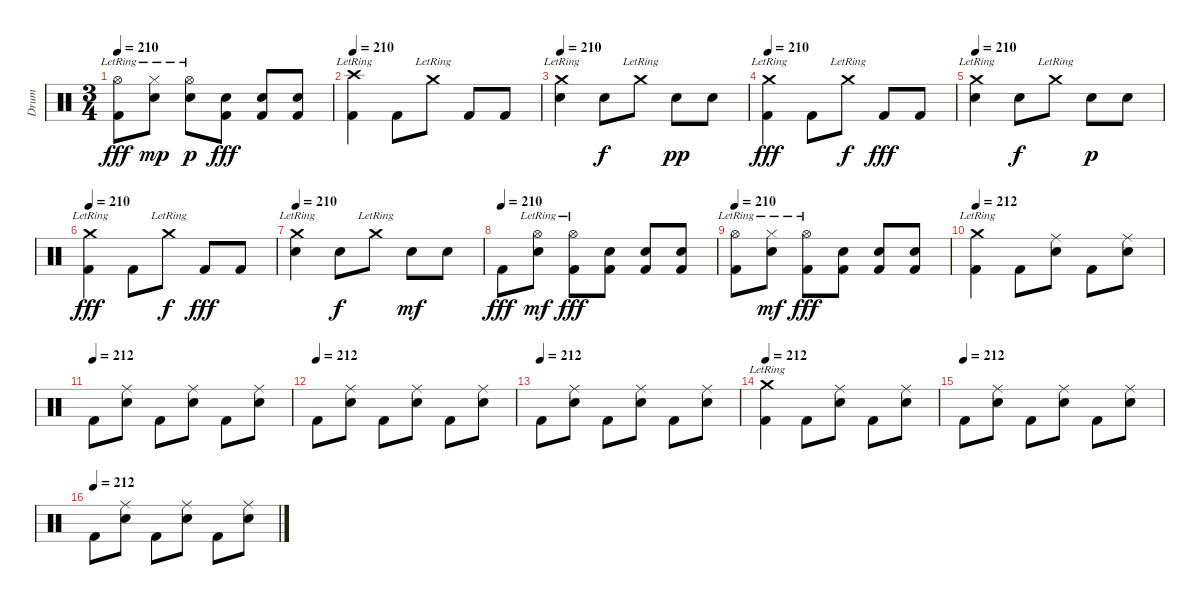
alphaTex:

\track ("Drum" "Drum") {instrument percussion}
\staff {score}
\articulation defaults
\ts (3 4)
\tempo 210
\clef neutral
\ks c
("Hi-Hat (open)"{lr} "Kick (hit) 2").8{dy fff} ("Hi-Hat (closed)"{lr} "Electric Snare (hit)").8{dy mp} ("Hi-Hat (open)"{lr} "Electric Snare (hit)").8{dy p} ("Electric Snare (hit)" "Kick (hit) 2").8{dy fff} ("Electric Snare (hit)" "Kick (hit) 2").8 ("Electric Snare (hit)" "Kick (hit) 2").8 |
\tempo 210
("Crash high (hit)"{lr} "Kick (hit) 2").4 "Kick (hit) 2".8 "Crash medium (hit)"{lr}.8 "Kick (hit) 2".8 "Kick (hit) 2".8 |
\tempo 210
("Crash medium (hit)"{lr} "Electric Snare (hit)").4 "Electric Snare (hit)".8{dy f} "Crash medium (hit)"{lr}.8 "Electric Snare (hit)".8{dy pp} "Electric Snare (hit)".8 |
\tempo 210
("Crash medium (hit)"{lr} "Kick (hit) 2").4{dy fff} "Kick (hit) 2".8 "Crash medium (hit)"{lr}.8{dy f} "Kick (hit) 2".8{dy fff} "Kick (hit) 2".8 |
\tempo 210
("Crash medium (hit)"{lr} "Electric Snare (hit)").4 "Electric Snare (hit)".8{dy f} "Crash medium (hit)"{lr}.8 "Electric Snare (hit)".8{dy p} "Electric Snare (hit)".8 |
\tempo 210
("Crash medium (hit)"{lr} "Kick (hit) 2").4{dy fff} "Kick (hit) 2".8 "Crash medium (hit)"{lr}.8{dy f} "Kick (hit) 2".8{dy fff} "Kick (hit) 2".8 |
\tempo 210
("Crash medium (hit)"{lr} "Electric Snare (hit)").4 "Electric Snare (hit)".8{dy f} "Crash medium (hit)"{lr}.8 "Electric Snare (hit)".8{dy mf} "Electric Snare (hit)".8 |
\tempo (210)
"Kick (hit) 2".8{dy fff} ("Hi-Hat (open)"{lr} "Electric Snare (hit)").8{dy mf} ("Hi-Hat (open)"{lr} "Kick (hit) 2").8{dy fff} ("Electric Snare (hit)" "Kick (hit) 2").8 ("Electric Snare (hit)" "Kick (hit) 2").8 ("Electric Snare (hit)" "Kick (hit) 2").8 |
\tempo 210
("Hi-Hat (open)"{lr} "Kick (hit) 2").8 ("Hi-Hat (closed)"{lr} "Electric Snare (hit)").8{dy mf} ("Hi-Hat (open)"{lr} "Kick (hit) 2").8{dy fff} ("Electric Snare (hit)" "Kick (hit) 2").8 ("Electric Snare (hit)" "Kick (hit) 2").8 ("Electric Snare (hit)" "Kick (hit) 2").8 |
\tempo 212
("Crash medium (hit)"{lr} "Kick (hit) 2").4 "Kick (hit) 2".8 ("Ride (middle)" "Electric Snare (hit)").8 "Kick (hit) 2".8 ("Ride (middle)" "Electric Snare (hit)").8 |
\tempo (212)
"Kick (hit) 2".8 ("Ride (middle)" "Electric Snare (hit)").8 "Kick (hit) 2".8 ("Ride (middle)" "Electric Snare (hit)").8 "Kick (hit) 2".8 ("Ride (middle)" "Electric Snare (hit)").8 |
\tempo (212)
"Kick (hit) 2".8 ("Ride (middle)" "Electric Snare (hit)").8 "Kick (hit) 2".8 ("Ride (middle)" "Electric Snare (hit)").8 "Kick (hit) 2".8 ("Ride (middle)" "Electric Snare (hit)").8 |
\tempo (212)
"Kick (hit) 2".8 ("Ride (middle)" "Electric Snare (hit)").8 "Kick (hit) 2".8 ("Ride (middle)" "Electric Snare (hit)").8 "Kick (hit) 2".8 ("Ride (middle)" "Electric Snare (hit)").8 |
\tempo 212
("Crash medium (hit)"{lr} "Kick (hit) 2").4 "Kick (hit) 2".8 ("Ride (middle)" "Electric Snare (hit)").8 "Kick (hit) 2".8 ("Ride (middle)" "Electric Snare (hit)").8 |
\tempo (212)
"Kick (hit) 2".8 ("Ride (middle)" "Electric Snare (hit)").8 "Kick (hit) 2".8 ("Ride (middle)" "Electric Snare (hit)").8 "Kick (hit) 2".8 ("Ride (middle)" "Electric Snare (hit)").8 |
\tempo (212)
"Kick (hit) 2".8 ("Ride (middle)" "Electric Snare (hit)").8 "Kick (hit) 2".8 ("Ride (middle)" "Electric Snare (hit)").8 "Kick (hit) 2".8 ("Ride (middle)" "Electric Snare (hit)").8
